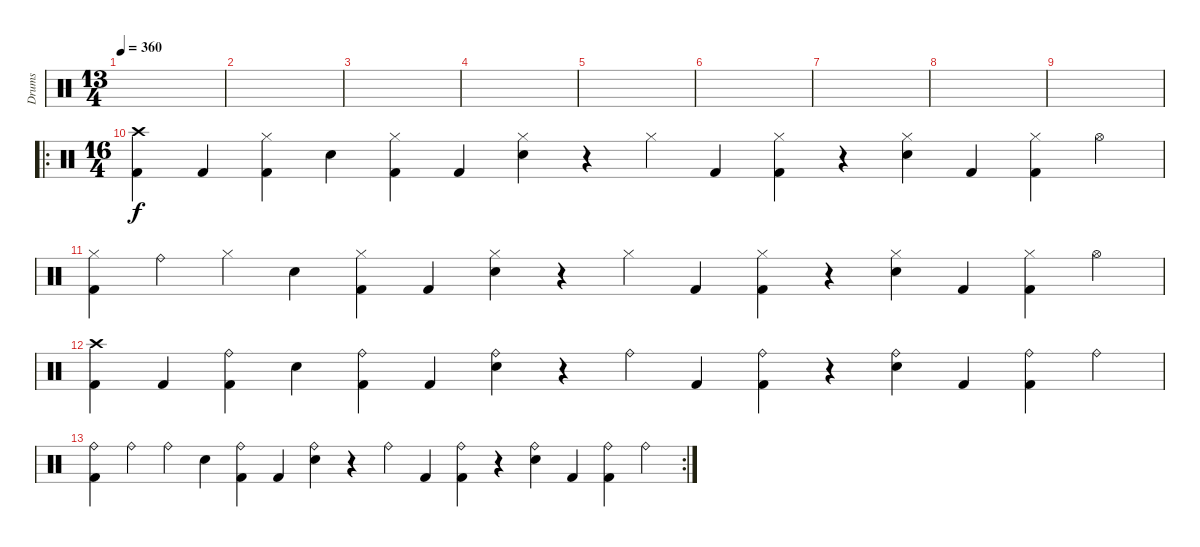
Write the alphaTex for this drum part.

\track ("Drums" "Drums") {mute instrument percussion}
\staff {score}
\articulation defaults
\ts (13 4)
\tempo 360
\clef neutral
\ks c
|
|
|
|
|
|
|
|
|
\ro
\ts (16 4)
("Crash high (hit)" "Kick (hit) 2").4 "Kick (hit) 2".4 ("Hi-Hat (closed)" "Kick (hit) 2").4 "Snare (hit) 2".4 ("Hi-Hat (closed)" "Kick (hit) 2").4 "Kick (hit) 2".4 ("Hi-Hat (closed)" "Snare (hit) 2").4 r.4 "Hi-Hat (closed)".4 "Kick (hit) 2".4 ("Hi-Hat (closed)" "Kick (hit) 2").4 r.4 ("Hi-Hat (closed)" "Snare (hit) 2").4 "Kick (hit) 2".4 ("Hi-Hat (closed)" "Kick (hit) 2").4 "Hi-Hat (open)".4 |
("Hi-Hat (closed)" "Kick (hit) 2").4 "Ride (bell)".4 "Hi-Hat (closed)".4 "Snare (hit) 2".4 ("Hi-Hat (closed)" "Kick (hit) 2").4 "Kick (hit) 2".4 ("Hi-Hat (closed)" "Snare (hit) 2").4 r.4 "Hi-Hat (closed)".4 "Kick (hit) 2".4 ("Hi-Hat (closed)" "Kick (hit) 2").4 r.4 ("Hi-Hat (closed)" "Snare (hit) 2").4 "Kick (hit) 2".4 ("Hi-Hat (closed)" "Kick (hit) 2").4 "Hi-Hat (open)".4 |
("Crash high (hit)" "Kick (hit) 2").4 "Kick (hit) 2".4 ("Ride (bell)" "Kick (hit) 2").4 "Snare (hit) 2".4 ("Ride (bell)" "Kick (hit) 2").4 "Kick (hit) 2".4 ("Ride (bell)" "Snare (hit) 2").4 r.4 "Ride (bell)".4 "Kick (hit) 2".4 ("Ride (bell)" "Kick (hit) 2").4 r.4 ("Ride (bell)" "Snare (hit) 2").4 "Kick (hit) 2".4 ("Ride (bell)" "Kick (hit) 2").4 "Ride (bell)".4 |
\rc 2
("Ride (bell)" "Kick (hit) 2").4 "Ride (bell)".4 "Ride (bell)".4 "Snare (hit) 2".4 ("Ride (bell)" "Kick (hit) 2").4 "Kick (hit) 2".4 ("Ride (bell)" "Snare (hit) 2").4 r.4 "Ride (bell)".4 "Kick (hit) 2".4 ("Ride (bell)" "Kick (hit) 2").4 r.4 ("Ride (bell)" "Snare (hit) 2").4 "Kick (hit) 2".4 ("Ride (bell)" "Kick (hit) 2").4 "Ride (bell)".4
